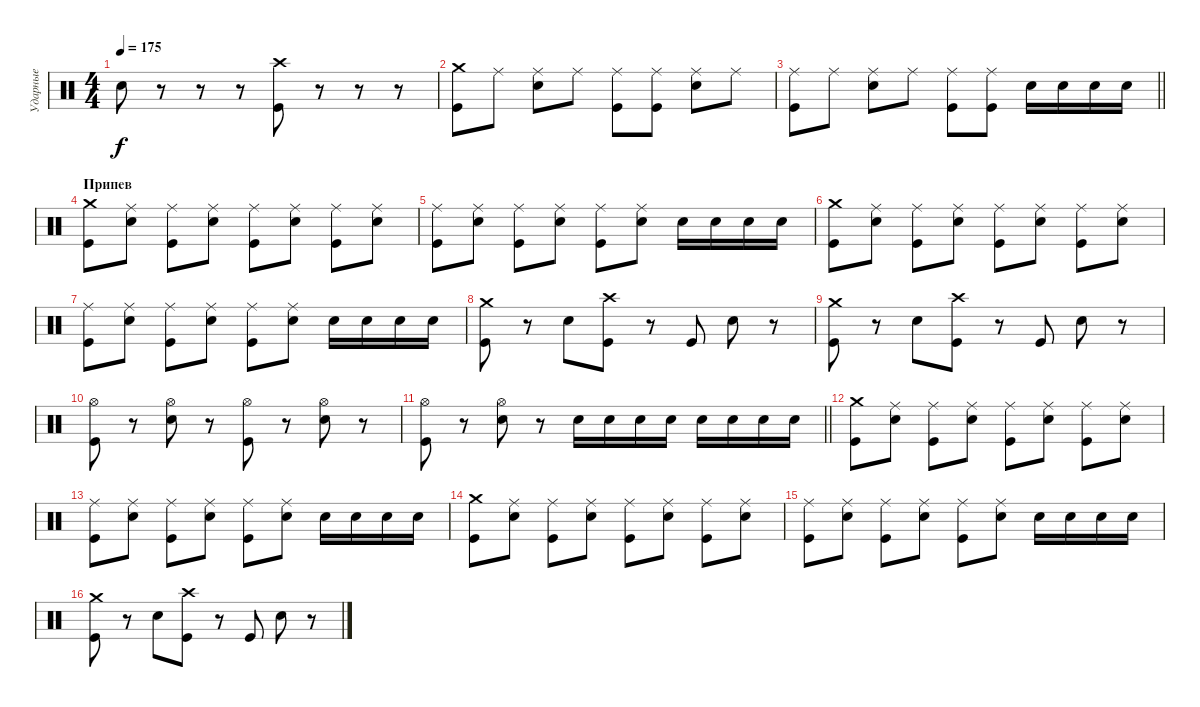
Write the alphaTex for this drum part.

\track ("Ударные" "Ударные") {instrument percussion}
\staff {score}
\articulation defaults
\ts (4 4)
\tempo 175
\clef neutral
\ks c "Electric Snare (hit)".8{dy f}
r.8 r.8 r.8 ("Crash high (hit)" "Kick (hit)").8 r.8 r.8 r.8 |
("Crash medium (hit)" "Kick (hit)").8 "Ride (middle)".8 ("Ride (middle)" "Electric Snare (hit)").8 "Ride (middle)".8 ("Ride (middle)" "Kick (hit)").8 ("Ride (middle)" "Kick (hit)").8 ("Ride (middle)" "Electric Snare (hit)").8 "Ride (middle)".8 |
\barLineRight lightlight
("Ride (middle)" "Kick (hit)").8 "Ride (middle)".8 ("Ride (middle)" "Electric Snare (hit)").8 "Ride (middle)".8 ("Ride (middle)" "Kick (hit)").8 ("Ride (middle)" "Kick (hit)").8 "Electric Snare (hit)".16 "Electric Snare (hit)".16 "Electric Snare (hit)".16 "Electric Snare (hit)".16 |
\section ("" "Припев")
("Crash medium (hit)" "Kick (hit)").8 ("Ride (middle)" "Electric Snare (hit)").8 ("Ride (middle)" "Kick (hit)").8 ("Ride (middle)" "Electric Snare (hit)").8 ("Ride (middle)" "Kick (hit)").8 ("Ride (middle)" "Electric Snare (hit)").8 ("Ride (middle)" "Kick (hit)").8 ("Ride (middle)" "Electric Snare (hit)").8 |
("Ride (middle)" "Kick (hit)").8 ("Ride (middle)" "Electric Snare (hit)").8 ("Ride (middle)" "Kick (hit)").8 ("Ride (middle)" "Electric Snare (hit)").8 ("Ride (middle)" "Kick (hit)").8 ("Ride (middle)" "Electric Snare (hit)").8 "Electric Snare (hit)".16 "Electric Snare (hit)".16 "Electric Snare (hit)".16 "Electric Snare (hit)".16 |
("Crash medium (hit)" "Kick (hit)").8 ("Ride (middle)" "Electric Snare (hit)").8 ("Ride (middle)" "Kick (hit)").8 ("Ride (middle)" "Electric Snare (hit)").8 ("Ride (middle)" "Kick (hit)").8 ("Ride (middle)" "Electric Snare (hit)").8 ("Ride (middle)" "Kick (hit)").8 ("Ride (middle)" "Electric Snare (hit)").8 |
("Ride (middle)" "Kick (hit)").8 ("Ride (middle)" "Electric Snare (hit)").8 ("Ride (middle)" "Kick (hit)").8 ("Ride (middle)" "Electric Snare (hit)").8 ("Ride (middle)" "Kick (hit)").8 ("Ride (middle)" "Electric Snare (hit)").8 "Electric Snare (hit)".16 "Electric Snare (hit)".16 "Electric Snare (hit)".16 "Electric Snare (hit)".16 |
("Crash medium (hit)" "Kick (hit)").8 r.8 "Electric Snare (hit)".8 ("Crash high (hit)" "Kick (hit)").8 r.8 "Kick (hit)".8 "Electric Snare (hit)".8 r.8 |
("Crash medium (hit)" "Kick (hit)").8 r.8 "Electric Snare (hit)".8 ("Crash high (hit)" "Kick (hit)").8 r.8 "Kick (hit)".8 "Electric Snare (hit)".8 r.8 |
("Hi-Hat (open)" "Kick (hit)").8 r.8 ("Hi-Hat (open)" "Electric Snare (hit)").8 r.8 ("Hi-Hat (open)" "Kick (hit)").8 r.8 ("Hi-Hat (open)" "Electric Snare (hit)").8 r.8 |
\barLineRight lightlight
("Hi-Hat (open)" "Kick (hit)").8 r.8 ("Hi-Hat (open)" "Electric Snare (hit)").8 r.8 "Electric Snare (hit)".16 "Electric Snare (hit)".16 "Electric Snare (hit)".16 "Electric Snare (hit)".16 "Electric Snare (hit)".16 "Electric Snare (hit)".16 "Electric Snare (hit)".16 "Electric Snare (hit)".16 |
\section ("" " ")
("Crash medium (hit)" "Kick (hit)").8 ("Ride (middle)" "Electric Snare (hit)").8 ("Ride (middle)" "Kick (hit)").8 ("Ride (middle)" "Electric Snare (hit)").8 ("Ride (middle)" "Kick (hit)").8 ("Ride (middle)" "Electric Snare (hit)").8 ("Ride (middle)" "Kick (hit)").8 ("Ride (middle)" "Electric Snare (hit)").8 |
("Ride (middle)" "Kick (hit)").8 ("Ride (middle)" "Electric Snare (hit)").8 ("Ride (middle)" "Kick (hit)").8 ("Ride (middle)" "Electric Snare (hit)").8 ("Ride (middle)" "Kick (hit)").8 ("Ride (middle)" "Electric Snare (hit)").8 "Electric Snare (hit)".16 "Electric Snare (hit)".16 "Electric Snare (hit)".16 "Electric Snare (hit)".16 |
("Crash medium (hit)" "Kick (hit)").8 ("Ride (middle)" "Electric Snare (hit)").8 ("Ride (middle)" "Kick (hit)").8 ("Ride (middle)" "Electric Snare (hit)").8 ("Ride (middle)" "Kick (hit)").8 ("Ride (middle)" "Electric Snare (hit)").8 ("Ride (middle)" "Kick (hit)").8 ("Ride (middle)" "Electric Snare (hit)").8 |
("Ride (middle)" "Kick (hit)").8 ("Ride (middle)" "Electric Snare (hit)").8 ("Ride (middle)" "Kick (hit)").8 ("Ride (middle)" "Electric Snare (hit)").8 ("Ride (middle)" "Kick (hit)").8 ("Ride (middle)" "Electric Snare (hit)").8 "Electric Snare (hit)".16 "Electric Snare (hit)".16 "Electric Snare (hit)".16 "Electric Snare (hit)".16 |
("Crash medium (hit)" "Kick (hit)").8 r.8 "Electric Snare (hit)".8 ("Crash high (hit)" "Kick (hit)").8 r.8 "Kick (hit)".8 "Electric Snare (hit)".8 r.8
